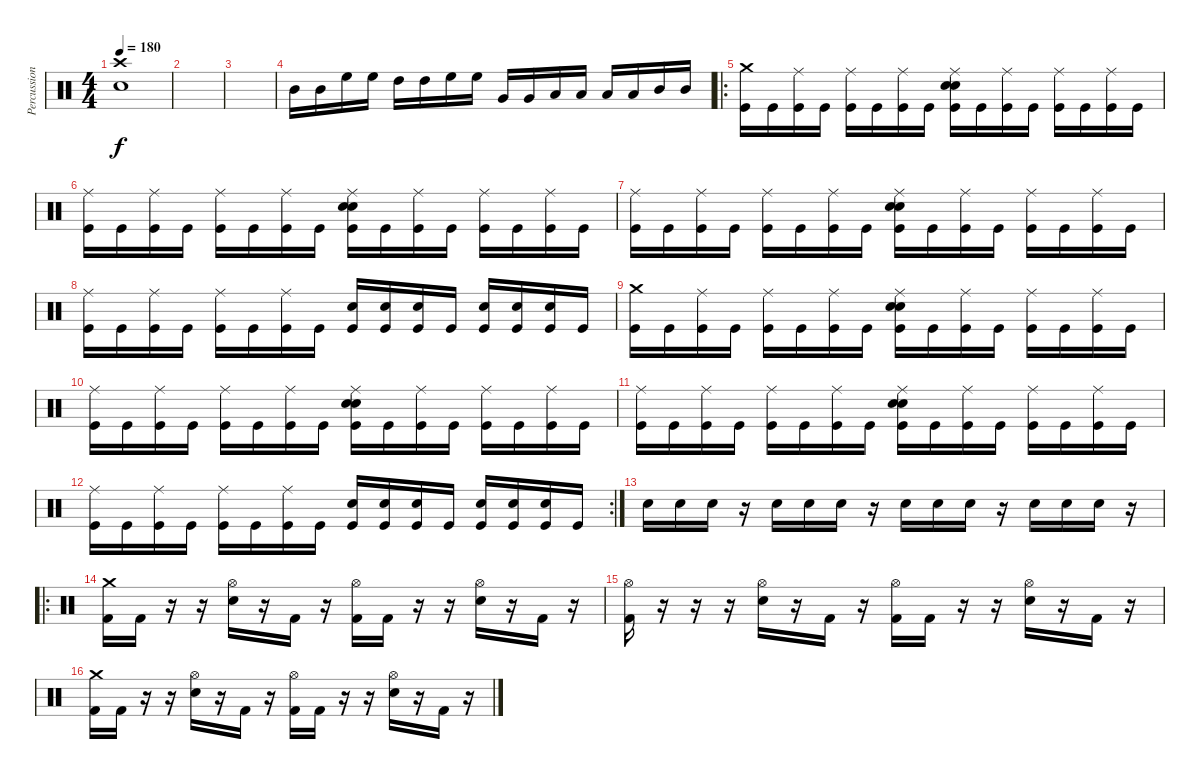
\track ("Percussions" "Percussion") {instrument percussion}
\staff {score}
\articulation defaults
\ts (4 4)
\tempo 180
\clef neutral
\ks c
("Crash high (hit)" "Electric Snare (hit)").1{dy f} |
|
|
"Mid Tom (hit)".16 "Mid Tom (hit)".16 "High Floor Tom (hit)".16 "High Floor Tom (hit)".16 "High Tom (hit)".16 "High Tom (hit)".16 "High Floor Tom (hit)".16 "High Floor Tom (hit)".16 "Very Low Tom (hit)".16 "Very Low Tom (hit)".16 "Low Floor Tom (hit)".16 "Low Floor Tom (hit)".16 "Low Tom (hit)".16 "Low Tom (hit)".16 "Mid Tom (hit)".16 "Mid Tom (hit)".16 |
\ro
("Kick (hit)" "Crash medium (hit)").16 "Kick (hit)".16 ("Kick (hit)" "Ride (middle)").16 "Kick (hit)".16 ("Kick (hit)" "Ride (middle)").16 "Kick (hit)".16 ("Kick (hit)" "Ride (middle)").16 "Kick (hit)".16 ("Kick (hit)" "Electric Snare (hit)" "Ride (middle)" "Electric Snare (hit)").16 "Kick (hit)".16 ("Kick (hit)" "Ride (middle)").16 "Kick (hit)".16 ("Kick (hit)" "Ride (middle)").16 "Kick (hit)".16 ("Kick (hit)" "Ride (middle)").16 "Kick (hit)".16 |
("Kick (hit)" "Ride (middle)").16 "Kick (hit)".16 ("Kick (hit)" "Ride (middle)").16 "Kick (hit)".16 ("Kick (hit)" "Ride (middle)").16 "Kick (hit)".16 ("Kick (hit)" "Ride (middle)").16 "Kick (hit)".16 ("Kick (hit)" "Electric Snare (hit)" "Ride (middle)" "Electric Snare (hit)").16 "Kick (hit)".16 ("Kick (hit)" "Ride (middle)").16 "Kick (hit)".16 ("Kick (hit)" "Ride (middle)").16 "Kick (hit)".16 ("Kick (hit)" "Ride (middle)").16 "Kick (hit)".16 |
("Kick (hit)" "Ride (middle)").16 "Kick (hit)".16 ("Kick (hit)" "Ride (middle)").16 "Kick (hit)".16 ("Kick (hit)" "Ride (middle)").16 "Kick (hit)".16 ("Kick (hit)" "Ride (middle)").16 "Kick (hit)".16 ("Kick (hit)" "Electric Snare (hit)" "Ride (middle)" "Electric Snare (hit)").16 "Kick (hit)".16 ("Kick (hit)" "Ride (middle)").16 "Kick (hit)".16 ("Kick (hit)" "Ride (middle)").16 "Kick (hit)".16 ("Kick (hit)" "Ride (middle)").16 "Kick (hit)".16 |
("Kick (hit)" "Ride (middle)").16 "Kick (hit)".16 ("Kick (hit)" "Ride (middle)").16 "Kick (hit)".16 ("Kick (hit)" "Ride (middle)").16 "Kick (hit)".16 ("Kick (hit)" "Ride (middle)").16 "Kick (hit)".16 ("Kick (hit)" "Snare (hit) 2").16 ("Kick (hit)" "Snare (hit) 2").16 ("Kick (hit)" "Snare (hit) 2").16 "Kick (hit)".16 ("Kick (hit)" "Snare (hit) 2").16 ("Kick (hit)" "Snare (hit) 2").16 ("Kick (hit)" "Snare (hit) 2").16 "Kick (hit)".16 |
("Kick (hit)" "Crash medium (hit)").16 "Kick (hit)".16 ("Kick (hit)" "Ride (middle)").16 "Kick (hit)".16 ("Kick (hit)" "Ride (middle)").16 "Kick (hit)".16 ("Kick (hit)" "Ride (middle)").16 "Kick (hit)".16 ("Kick (hit)" "Electric Snare (hit)" "Ride (middle)" "Electric Snare (hit)").16 "Kick (hit)".16 ("Kick (hit)" "Ride (middle)").16 "Kick (hit)".16 ("Kick (hit)" "Ride (middle)").16 "Kick (hit)".16 ("Kick (hit)" "Ride (middle)").16 "Kick (hit)".16 |
("Kick (hit)" "Ride (middle)").16 "Kick (hit)".16 ("Kick (hit)" "Ride (middle)").16 "Kick (hit)".16 ("Kick (hit)" "Ride (middle)").16 "Kick (hit)".16 ("Kick (hit)" "Ride (middle)").16 "Kick (hit)".16 ("Kick (hit)" "Electric Snare (hit)" "Ride (middle)" "Electric Snare (hit)").16 "Kick (hit)".16 ("Kick (hit)" "Ride (middle)").16 "Kick (hit)".16 ("Kick (hit)" "Ride (middle)").16 "Kick (hit)".16 ("Kick (hit)" "Ride (middle)").16 "Kick (hit)".16 |
("Kick (hit)" "Ride (middle)").16 "Kick (hit)".16 ("Kick (hit)" "Ride (middle)").16 "Kick (hit)".16 ("Kick (hit)" "Ride (middle)").16 "Kick (hit)".16 ("Kick (hit)" "Ride (middle)").16 "Kick (hit)".16 ("Kick (hit)" "Electric Snare (hit)" "Ride (middle)" "Electric Snare (hit)").16 "Kick (hit)".16 ("Kick (hit)" "Ride (middle)").16 "Kick (hit)".16 ("Kick (hit)" "Ride (middle)").16 "Kick (hit)".16 ("Kick (hit)" "Ride (middle)").16 "Kick (hit)".16 |
\rc 2
("Kick (hit)" "Ride (middle)").16 "Kick (hit)".16 ("Kick (hit)" "Ride (middle)").16 "Kick (hit)".16 ("Kick (hit)" "Ride (middle)").16 "Kick (hit)".16 ("Kick (hit)" "Ride (middle)").16 "Kick (hit)".16 ("Kick (hit)" "Snare (hit) 2").16 ("Kick (hit)" "Snare (hit) 2").16 ("Kick (hit)" "Snare (hit) 2").16 "Kick (hit)".16 ("Kick (hit)" "Snare (hit) 2").16 ("Kick (hit)" "Snare (hit) 2").16 ("Kick (hit)" "Snare (hit) 2").16 "Kick (hit)".16 |
"Snare (hit) 2".16 "Snare (hit) 2".16 "Snare (hit) 2".16 r.16 "Snare (hit) 2".16 "Snare (hit) 2".16 "Snare (hit) 2".16 r.16 "Snare (hit) 2".16 "Snare (hit) 2".16 "Snare (hit) 2".16 r.16 "Snare (hit) 2".16 "Snare (hit) 2".16 "Snare (hit) 2".16 r.16 |
\ro
("Kick (hit) 2" "Crash medium (hit)").16 "Kick (hit) 2".16 r.16 r.16 ("Snare (hit) 2" "Hi-Hat (open)").16 r.16 "Kick (hit) 2".16 r.16 ("Kick (hit) 2" "Hi-Hat (open)").16 "Kick (hit) 2".16 r.16 r.16 ("Snare (hit) 2" "Hi-Hat (open)").16 r.16 "Kick (hit) 2".16 r.16 |
("Kick (hit) 2" "Hi-Hat (open)").16 r.16 r.16 r.16 ("Snare (hit) 2" "Hi-Hat (open)").16 r.16 "Kick (hit) 2".16 r.16 ("Kick (hit) 2" "Hi-Hat (open)").16 "Kick (hit) 2".16 r.16 r.16 ("Snare (hit) 2" "Hi-Hat (open)").16 r.16 "Kick (hit) 2".16 r.16 |
("Kick (hit) 2" "Crash medium (hit)").16 "Kick (hit) 2".16 r.16 r.16 ("Snare (hit) 2" "Hi-Hat (open)").16 r.16 "Kick (hit) 2".16 r.16 ("Kick (hit) 2" "Hi-Hat (open)").16 "Kick (hit) 2".16 r.16 r.16 ("Snare (hit) 2" "Hi-Hat (open)").16 r.16 "Kick (hit) 2".16 r.16
